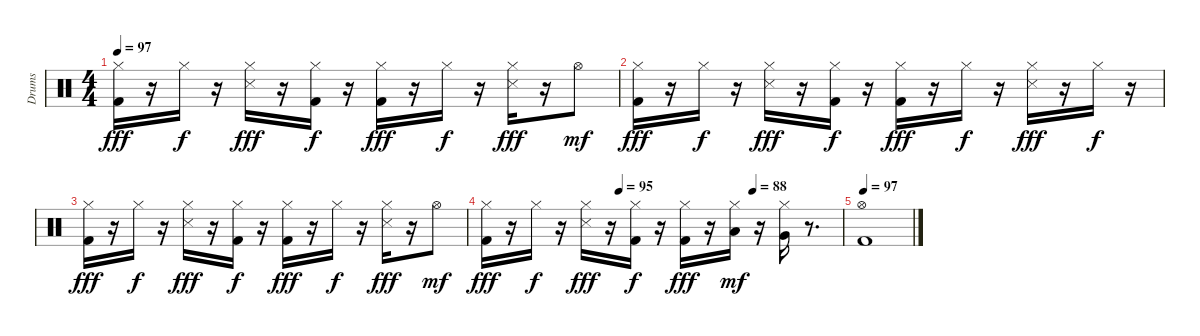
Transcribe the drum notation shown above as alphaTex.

\track ("Drums" "Drums") {instrument percussion}
\staff {score}
\articulation defaults
\ts (4 4)
\tempo 97
\clef neutral
\ks c
("Kick (hit) 2" "Hi-Hat (closed)").16{dy fff} r.16 "Hi-Hat (closed)".16{dy f} r.16 ("Hi-Hat (closed)" "Snare (side stick) 3").16{dy fff} r.16 ("Kick (hit) 2" "Hi-Hat (closed)").16{dy f} r.16 ("Kick (hit) 2" "Hi-Hat (closed)").16{dy fff} r.16 "Hi-Hat (closed)".16{dy f} r.16 ("Hi-Hat (closed)" "Snare (side stick) 3").16{dy fff} r.16 "Hi-Hat (open)".8{dy mf} |
("Kick (hit) 2" "Hi-Hat (closed)").16{dy fff} r.16 "Hi-Hat (closed)".16{dy f} r.16 ("Hi-Hat (closed)" "Snare (side stick) 3").16{dy fff} r.16 ("Kick (hit) 2" "Hi-Hat (closed)").16{dy f} r.16 ("Kick (hit) 2" "Hi-Hat (closed)").16{dy fff} r.16 "Hi-Hat (closed)".16{dy f} r.16 ("Hi-Hat (closed)" "Snare (side stick) 3").16{dy fff} r.16 "Hi-Hat (closed)".16{dy f} r.16 |
("Kick (hit) 2" "Hi-Hat (closed)").16{dy fff} r.16 "Hi-Hat (closed)".16{dy f} r.16 ("Hi-Hat (closed)" "Snare (side stick) 3").16{dy fff} r.16 ("Kick (hit) 2" "Hi-Hat (closed)").16{dy f} r.16 ("Kick (hit) 2" "Hi-Hat (closed)").16{dy fff} r.16 "Hi-Hat (closed)".16{dy f} r.16 ("Hi-Hat (closed)" "Snare (side stick) 3").16{dy fff} r.16 "Hi-Hat (open)".8{dy mf} |
\tempo (95 0.375)
\tempo (88 0.75)
("Kick (hit) 2" "Hi-Hat (closed)").16{dy fff} r.16 "Hi-Hat (closed)".16{dy f} r.16 ("Hi-Hat (closed)" "Snare (side stick) 3").16{dy fff} r.16 ("Kick (hit) 2" "Hi-Hat (closed)").16{dy f} r.16 ("Kick (hit) 2" "Hi-Hat (closed)").16{dy fff} r.16 ("Hi-Hat (closed)" "Low Tom (hit)").16{dy mf} r.16 ("Hi-Hat (closed)" "Very Low Tom (hit)").16 r.8{d} |
\tempo 97
("Kick (hit) 2" "Hi-Hat (open)").1
